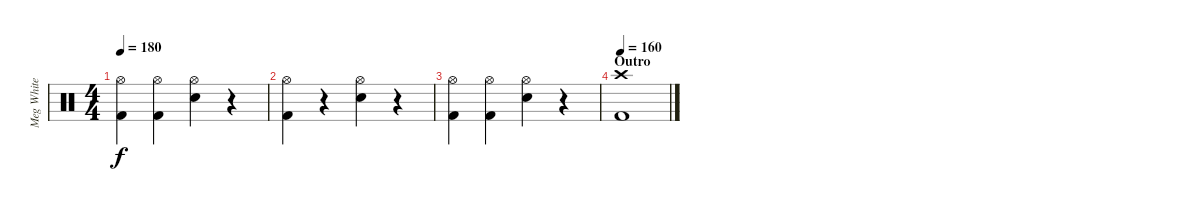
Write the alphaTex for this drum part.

\track ("Meg White" "Meg White") {instrument percussion}
\staff {score}
\articulation defaults
\ts (4 4)
\tempo 180
\clef neutral
\ks c
("Hi-Hat (open)" "Kick (hit) 2").4{dy f} ("Hi-Hat (open)" "Kick (hit) 2").4 ("Hi-Hat (open)" "Snare (hit) 2").4 r.4 |
("Hi-Hat (open)" "Kick (hit) 2").4 r.4 ("Hi-Hat (open)" "Snare (hit) 2").4 r.4 |
("Hi-Hat (open)" "Kick (hit) 2").4 ("Hi-Hat (open)" "Kick (hit) 2").4 ("Hi-Hat (open)" "Snare (hit) 2").4 r.4 |
\section ("" "Outro")
\tempo 160
("Crash high (hit)" "Kick (hit) 2").1
